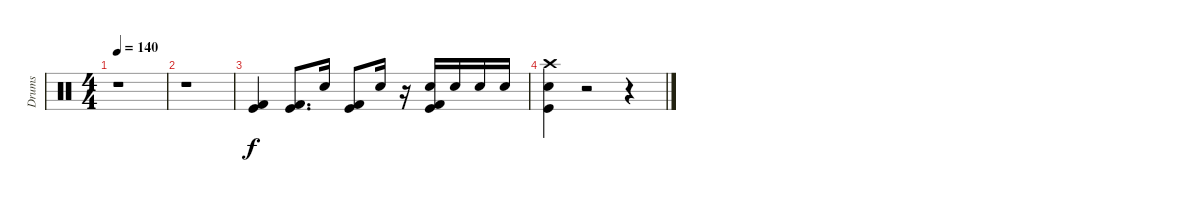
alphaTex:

\track ("Drums" "Drums") {instrument percussion}
\staff {score}
\articulation defaults
\ts (4 4)
\tempo 140
\clef neutral
\ks c
r.1{dy f} |
r.1 |
("Kick (hit) 2" "Kick (hit)").4 ("Kick (hit) 2" "Kick (hit)").8{d} "Snare (hit) 2".16 ("Kick (hit) 2" "Kick (hit)").8 "Snare (hit) 2".16 r.16 ("Snare (hit) 2" "Kick (hit) 2" "Kick (hit)").16 "Snare (hit) 2".16 "Snare (hit) 2".16 "Snare (hit) 2".16 |
("Kick (hit)" "Snare (hit) 2" "Crash high (hit)").4 r.2 r.4
